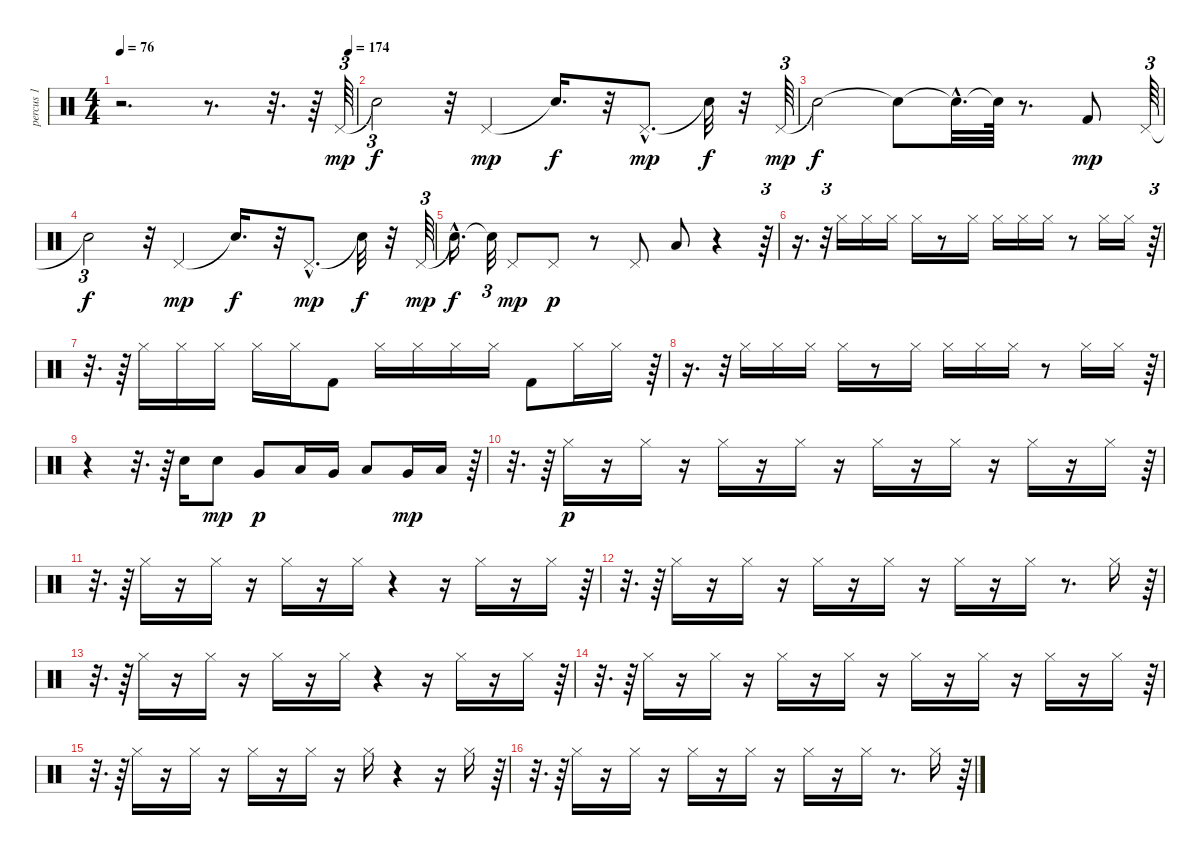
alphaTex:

\track ("percus 1" "percus 1") {instrument percussion}
\staff {score}
\articulation defaults
\ts (4 4)
\tempo 76
\tempo (174 0.96875)
\clef neutral
\ks c
r.2{d dy mp} r.8{d} r.32{d} r.64 "Pedal Hi-Hat (hit)".64{tu (3 2)} |
"Snare (hit)"{t}.2{tu (3 2) dy f} r.32 "Pedal Hi-Hat (hit)".4{dy mp} "Snare (hit)"{t}.16{d dy f} r.32 "Pedal Hi-Hat (hit)"{hac}.8{d dy mp} "Snare (hit)"{t}.32{dy f} r.32 "Pedal Hi-Hat (hit)".64{tu (3 2) dy mp} |
"Snare (hit)"{t}.2{dy f} "Snare (hit)"{t}.8 "Snare (hit)"{hac t}.32{d} "Snare (hit)"{t}.64 r.8{d} "Kick (hit) 2".8{dy mp} "Pedal Hi-Hat (hit)".64{tu (3 2)} |
"Snare (hit)"{t}.2{tu (3 2) dy f} r.32 "Pedal Hi-Hat (hit)".4{dy mp} "Snare (hit)"{t}.16{d dy f} r.32 "Pedal Hi-Hat (hit)"{hac}.8{d dy mp} "Snare (hit)"{t}.32{dy f} r.32 "Pedal Hi-Hat (hit)".64{tu (3 2) dy mp} |
"Snare (hit)"{hac t}.16{d dy f} "Snare (hit)"{t}.32{tu (3 2)} "Pedal Hi-Hat (hit)".8{dy mp} "Pedal Hi-Hat (hit)".8{dy p} r.8 "Pedal Hi-Hat (hit)".8 "Low Floor Tom (hit)".8 r.4 r.64{tu (3 2)} |
r.16{d} r.32{tu (3 2)} "Hi-Hat (closed)".16 "Hi-Hat (closed)".16 "Hi-Hat (closed)".16 "Hi-Hat (closed)".16 r.8 "Hi-Hat (closed)".16 "Hi-Hat (closed)".16 "Hi-Hat (closed)".16 "Hi-Hat (closed)".16 r.8 "Hi-Hat (closed)".16 "Hi-Hat (closed)".16 r.64{tu (3 2)} |
r.32{d} r.64 "Hi-Hat (closed)".16 "Hi-Hat (closed)".16 "Hi-Hat (closed)".16 "Hi-Hat (closed)".16 "Hi-Hat (closed)".16 "Kick (hit) 2".8 "Hi-Hat (closed)".16 "Hi-Hat (closed)".16 "Hi-Hat (closed)".16 "Hi-Hat (closed)".16 "Kick (hit) 2".8 "Hi-Hat (closed)".16 "Hi-Hat (closed)".16 r.64{tu (3 2)} |
r.16{d} r.32{tu (3 2)} "Hi-Hat (closed)".16 "Hi-Hat (closed)".16 "Hi-Hat (closed)".16 "Hi-Hat (closed)".16 r.8 "Hi-Hat (closed)".16 "Hi-Hat (closed)".16 "Hi-Hat (closed)".16 "Hi-Hat (closed)".16 r.8 "Hi-Hat (closed)".16 "Hi-Hat (closed)".16 r.64{tu (3 2)} |
r.4 r.32{d} r.64 "Electric Snare (hit)".16 "Electric Snare (hit)".8{dy mp} "Very Low Tom (hit)".8{dy p} "Low Tom (hit)".16 "Very Low Tom (hit)".16 "Low Floor Tom (hit)".8 "Very Low Tom (hit)".16{dy mp} "Low Floor Tom (hit)".16 r.64{tu (3 2)} |
r.32{d} r.64 "Hi-Hat (closed)".16{dy p} r.16 "Hi-Hat (closed)".16 r.16 "Hi-Hat (closed)".16 r.16 "Hi-Hat (closed)".16 r.16 "Hi-Hat (closed)".16 r.16 "Hi-Hat (closed)".16 r.16 "Hi-Hat (closed)".16 r.16 "Hi-Hat (closed)".16 r.64{tu (3 2)} |
r.32{d} r.64 "Hi-Hat (closed)".16 r.16 "Hi-Hat (closed)".16 r.16 "Hi-Hat (closed)".16 r.16 "Hi-Hat (closed)".16 r.4 r.16 "Hi-Hat (closed)".16 r.16 "Hi-Hat (closed)".16 r.64{tu (3 2)} |
r.32{d} r.64 "Hi-Hat (closed)".16 r.16 "Hi-Hat (closed)".16 r.16 "Hi-Hat (closed)".16 r.16 "Hi-Hat (closed)".16 r.16 "Hi-Hat (closed)".16 r.16 "Hi-Hat (closed)".16 r.8{d} "Hi-Hat (closed)".16 r.64{tu (3 2)} |
r.32{d} r.64 "Hi-Hat (closed)".16 r.16 "Hi-Hat (closed)".16 r.16 "Hi-Hat (closed)".16 r.16 "Hi-Hat (closed)".16 r.4 r.16 "Hi-Hat (closed)".16 r.16 "Hi-Hat (closed)".16 r.64{tu (3 2)} |
r.32{d} r.64 "Hi-Hat (closed)".16 r.16 "Hi-Hat (closed)".16 r.16 "Hi-Hat (closed)".16 r.16 "Hi-Hat (closed)".16 r.16 "Hi-Hat (closed)".16 r.16 "Hi-Hat (closed)".16 r.16 "Hi-Hat (closed)".16 r.16 "Hi-Hat (closed)".16 r.64{tu (3 2)} |
r.32{d} r.64 "Hi-Hat (closed)".16 r.16 "Hi-Hat (closed)".16 r.16 "Hi-Hat (closed)".16 r.16 "Hi-Hat (closed)".16 r.16 "Hi-Hat (closed)".16 r.4 r.16 "Hi-Hat (closed)".16 r.64{tu (3 2)} |
r.32{d} r.64 "Hi-Hat (closed)".16 r.16 "Hi-Hat (closed)".16 r.16 "Hi-Hat (closed)".16 r.16 "Hi-Hat (closed)".16 r.16 "Hi-Hat (closed)".16 r.16 "Hi-Hat (closed)".16 r.8{d} "Hi-Hat (closed)".16 r.64{tu (3 2)}
